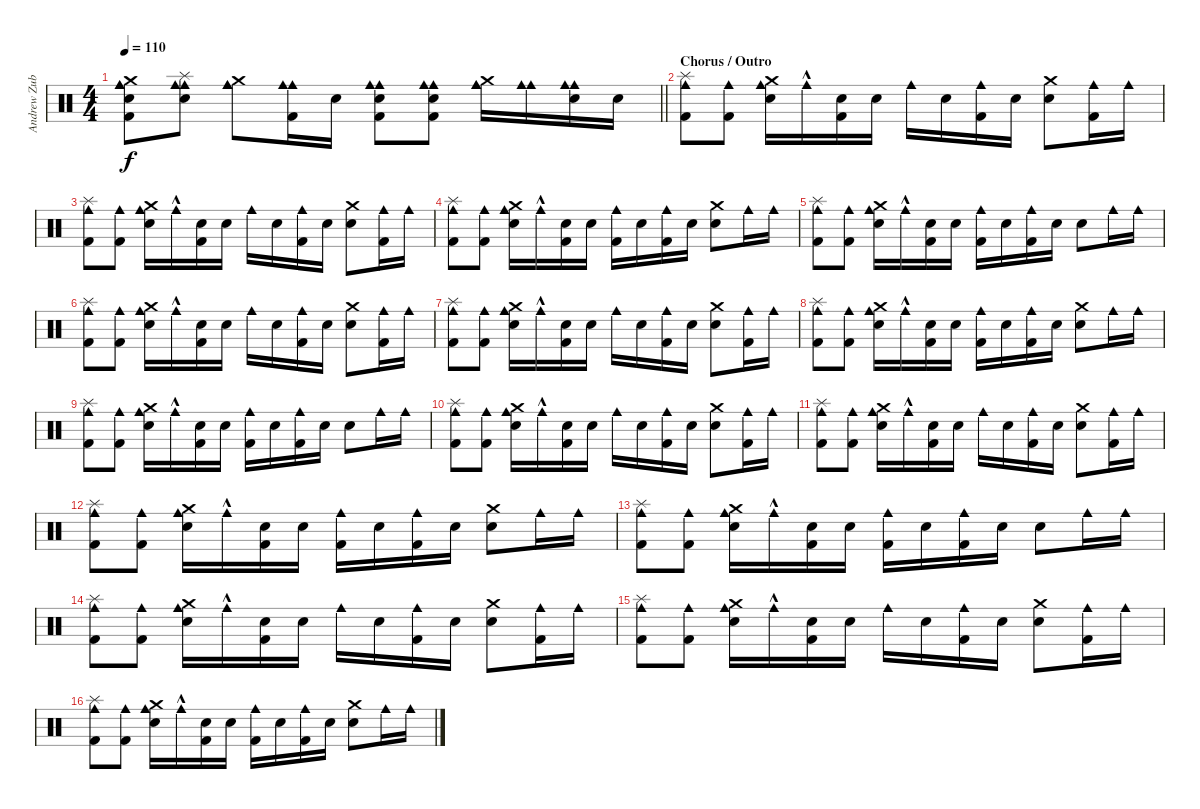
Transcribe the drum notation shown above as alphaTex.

\track ("Andrew Zubiszewski" "Andrew Zub") {instrument percussion}
\staff {score}
\articulation defaults
\ts (4 4)
\tempo 110
\clef neutral
\barLineRight lightlight
\ks c
("Cowbell medium (hit)" "Kick (hit) 2" "Electric Snare (hit)" "Cowbell medium (hit)" "Crash medium (hit)").8{dy f} ("Cowbell medium (hit)" "Electric Snare (hit)" "Cowbell medium (hit)" "Splash (hit)").8 ("Cowbell medium (hit)" "Cowbell medium (hit)" "Crash medium (hit)").8 ("Cowbell medium (hit)" "Kick (hit) 2" "Cowbell medium (hit)").16 "Electric Snare (hit)".16 ("Cowbell medium (hit)" "Kick (hit) 2" "Electric Snare (hit)" "Cowbell medium (hit)").8 ("Cowbell medium (hit)" "Kick (hit) 2" "Electric Snare (hit)" "Cowbell medium (hit)").8 ("Cowbell medium (hit)" "Cowbell medium (hit)" "Crash medium (hit)").16 ("Cowbell medium (hit)" "Cowbell medium (hit)").16 ("Cowbell medium (hit)" "Electric Snare (hit)" "Cowbell medium (hit)").16 "Electric Snare (hit)".16 |
\section ("" "Chorus / Outro")
("Kick (hit) 2" "Splash (hit)" "Cowbell medium (hit)").8 ("Kick (hit) 2" "Cowbell medium (hit)").8 ("Electric Snare (hit)" "Cowbell medium (hit)" "Crash medium (hit)").16 "Cowbell medium (hit)"{hac}.16 ("Kick (hit) 2" "Electric Snare (hit)").16 "Electric Snare (hit)".16 "Cowbell medium (hit)".16 "Electric Snare (hit)".16 ("Kick (hit) 2" "Cowbell medium (hit)").16 "Electric Snare (hit)".16 ("Electric Snare (hit)" "Crash medium (hit)").8 ("Kick (hit) 2" "Cowbell medium (hit)").16 "Cowbell medium (hit)".16 |
("Kick (hit) 2" "Splash (hit)" "Cowbell medium (hit)").8 ("Kick (hit) 2" "Cowbell medium (hit)").8 ("Electric Snare (hit)" "Cowbell medium (hit)" "Crash medium (hit)").16 "Cowbell medium (hit)"{hac}.16 ("Kick (hit) 2" "Electric Snare (hit)").16 "Electric Snare (hit)".16 "Cowbell medium (hit)".16 "Electric Snare (hit)".16 ("Kick (hit) 2" "Cowbell medium (hit)").16 "Electric Snare (hit)".16 ("Electric Snare (hit)" "Crash medium (hit)").8 ("Cowbell medium (hit)" "Kick (hit) 2").16 "Cowbell medium (hit)".16 |
("Kick (hit) 2" "Splash (hit)" "Cowbell medium (hit)").8 ("Kick (hit) 2" "Cowbell medium (hit)").8 ("Electric Snare (hit)" "Cowbell medium (hit)" "Crash medium (hit)").16 "Cowbell medium (hit)"{hac}.16 ("Kick (hit) 2" "Electric Snare (hit)").16 "Electric Snare (hit)".16 ("Kick (hit) 2" "Cowbell medium (hit)").16 "Electric Snare (hit)".16 ("Kick (hit) 2" "Cowbell medium (hit)").16 "Electric Snare (hit)".16 ("Electric Snare (hit)" "Crash medium (hit)").8 "Cowbell medium (hit)".16 "Cowbell medium (hit)".16 |
("Kick (hit) 2" "Splash (hit)" "Cowbell medium (hit)").8 ("Kick (hit) 2" "Cowbell medium (hit)").8 ("Electric Snare (hit)" "Cowbell medium (hit)" "Crash medium (hit)").16 "Cowbell medium (hit)"{hac}.16 ("Kick (hit) 2" "Electric Snare (hit)").16 "Electric Snare (hit)".16 ("Kick (hit) 2" "Cowbell medium (hit)").16 "Electric Snare (hit)".16 ("Kick (hit) 2" "Cowbell medium (hit)").16 "Electric Snare (hit)".16 "Electric Snare (hit)".8 "Cowbell medium (hit)".16 "Cowbell medium (hit)".16 |
("Kick (hit) 2" "Splash (hit)" "Cowbell medium (hit)").8 ("Kick (hit) 2" "Cowbell medium (hit)").8 ("Electric Snare (hit)" "Cowbell medium (hit)" "Crash medium (hit)").16 "Cowbell medium (hit)"{hac}.16 ("Kick (hit) 2" "Electric Snare (hit)").16 "Electric Snare (hit)".16 "Cowbell medium (hit)".16 "Electric Snare (hit)".16 ("Kick (hit) 2" "Cowbell medium (hit)").16 "Electric Snare (hit)".16 ("Electric Snare (hit)" "Crash medium (hit)").8 ("Cowbell medium (hit)" "Kick (hit) 2").16 "Cowbell medium (hit)".16 |
("Kick (hit) 2" "Splash (hit)" "Cowbell medium (hit)").8 ("Kick (hit) 2" "Cowbell medium (hit)").8 ("Electric Snare (hit)" "Cowbell medium (hit)" "Crash medium (hit)").16 "Cowbell medium (hit)"{hac}.16 ("Kick (hit) 2" "Electric Snare (hit)").16 "Electric Snare (hit)".16 "Cowbell medium (hit)".16 "Electric Snare (hit)".16 ("Kick (hit) 2" "Cowbell medium (hit)").16 "Electric Snare (hit)".16 ("Electric Snare (hit)" "Crash medium (hit)").8 ("Cowbell medium (hit)" "Kick (hit) 2").16 "Cowbell medium (hit)".16 |
("Kick (hit) 2" "Splash (hit)" "Cowbell medium (hit)").8 ("Kick (hit) 2" "Cowbell medium (hit)").8 ("Electric Snare (hit)" "Cowbell medium (hit)" "Crash medium (hit)").16 "Cowbell medium (hit)"{hac}.16 ("Kick (hit) 2" "Electric Snare (hit)").16 "Electric Snare (hit)".16 ("Kick (hit) 2" "Cowbell medium (hit)").16 "Electric Snare (hit)".16 ("Kick (hit) 2" "Cowbell medium (hit)").16 "Electric Snare (hit)".16 ("Electric Snare (hit)" "Crash medium (hit)").8 "Cowbell medium (hit)".16 "Cowbell medium (hit)".16 |
("Kick (hit) 2" "Splash (hit)" "Cowbell medium (hit)").8 ("Kick (hit) 2" "Cowbell medium (hit)").8 ("Electric Snare (hit)" "Cowbell medium (hit)" "Crash medium (hit)").16 "Cowbell medium (hit)"{hac}.16 ("Kick (hit) 2" "Electric Snare (hit)").16 "Electric Snare (hit)".16 ("Kick (hit) 2" "Cowbell medium (hit)").16 "Electric Snare (hit)".16 ("Kick (hit) 2" "Cowbell medium (hit)").16 "Electric Snare (hit)".16 "Electric Snare (hit)".8 "Cowbell medium (hit)".16 "Cowbell medium (hit)".16 |
("Kick (hit) 2" "Splash (hit)" "Cowbell medium (hit)").8 ("Kick (hit) 2" "Cowbell medium (hit)").8 ("Electric Snare (hit)" "Cowbell medium (hit)" "Crash medium (hit)").16 "Cowbell medium (hit)"{hac}.16 ("Kick (hit) 2" "Electric Snare (hit)").16 "Electric Snare (hit)".16 "Cowbell medium (hit)".16 "Electric Snare (hit)".16 ("Kick (hit) 2" "Cowbell medium (hit)").16 "Electric Snare (hit)".16 ("Electric Snare (hit)" "Crash medium (hit)").8 ("Cowbell medium (hit)" "Kick (hit) 2").16 "Cowbell medium (hit)".16 |
("Kick (hit) 2" "Splash (hit)" "Cowbell medium (hit)").8 ("Kick (hit) 2" "Cowbell medium (hit)").8 ("Electric Snare (hit)" "Cowbell medium (hit)" "Crash medium (hit)").16 "Cowbell medium (hit)"{hac}.16 ("Kick (hit) 2" "Electric Snare (hit)").16 "Electric Snare (hit)".16 "Cowbell medium (hit)".16 "Electric Snare (hit)".16 ("Kick (hit) 2" "Cowbell medium (hit)").16 "Electric Snare (hit)".16 ("Electric Snare (hit)" "Crash medium (hit)").8 ("Cowbell medium (hit)" "Kick (hit) 2").16 "Cowbell medium (hit)".16 |
("Kick (hit) 2" "Splash (hit)" "Cowbell medium (hit)").8 ("Kick (hit) 2" "Cowbell medium (hit)").8 ("Electric Snare (hit)" "Cowbell medium (hit)" "Crash medium (hit)").16 "Cowbell medium (hit)"{hac}.16 ("Kick (hit) 2" "Electric Snare (hit)").16 "Electric Snare (hit)".16 ("Kick (hit) 2" "Cowbell medium (hit)").16 "Electric Snare (hit)".16 ("Kick (hit) 2" "Cowbell medium (hit)").16 "Electric Snare (hit)".16 ("Electric Snare (hit)" "Crash medium (hit)").8 "Cowbell medium (hit)".16 "Cowbell medium (hit)".16 |
("Kick (hit) 2" "Splash (hit)" "Cowbell medium (hit)").8 ("Kick (hit) 2" "Cowbell medium (hit)").8 ("Electric Snare (hit)" "Cowbell medium (hit)" "Crash medium (hit)").16 "Cowbell medium (hit)"{hac}.16 ("Kick (hit) 2" "Electric Snare (hit)").16 "Electric Snare (hit)".16 ("Kick (hit) 2" "Cowbell medium (hit)").16 "Electric Snare (hit)".16 ("Kick (hit) 2" "Cowbell medium (hit)").16 "Electric Snare (hit)".16 "Electric Snare (hit)".8 "Cowbell medium (hit)".16 "Cowbell medium (hit)".16 |
("Kick (hit) 2" "Splash (hit)" "Cowbell medium (hit)").8 ("Kick (hit) 2" "Cowbell medium (hit)").8 ("Electric Snare (hit)" "Cowbell medium (hit)" "Crash medium (hit)").16 "Cowbell medium (hit)"{hac}.16 ("Kick (hit) 2" "Electric Snare (hit)").16 "Electric Snare (hit)".16 "Cowbell medium (hit)".16 "Electric Snare (hit)".16 ("Kick (hit) 2" "Cowbell medium (hit)").16 "Electric Snare (hit)".16 ("Electric Snare (hit)" "Crash medium (hit)").8 ("Cowbell medium (hit)" "Kick (hit) 2").16 "Cowbell medium (hit)".16 |
("Kick (hit) 2" "Splash (hit)" "Cowbell medium (hit)").8 ("Kick (hit) 2" "Cowbell medium (hit)").8 ("Electric Snare (hit)" "Cowbell medium (hit)" "Crash medium (hit)").16 "Cowbell medium (hit)"{hac}.16 ("Kick (hit) 2" "Electric Snare (hit)").16 "Electric Snare (hit)".16 "Cowbell medium (hit)".16 "Electric Snare (hit)".16 ("Kick (hit) 2" "Cowbell medium (hit)").16 "Electric Snare (hit)".16 ("Electric Snare (hit)" "Crash medium (hit)").8 ("Cowbell medium (hit)" "Kick (hit) 2").16 "Cowbell medium (hit)".16 |
("Kick (hit) 2" "Splash (hit)" "Cowbell medium (hit)").8 ("Kick (hit) 2" "Cowbell medium (hit)").8 ("Electric Snare (hit)" "Cowbell medium (hit)" "Crash medium (hit)").16 "Cowbell medium (hit)"{hac}.16 ("Kick (hit) 2" "Electric Snare (hit)").16 "Electric Snare (hit)".16 ("Kick (hit) 2" "Cowbell medium (hit)").16 "Electric Snare (hit)".16 ("Kick (hit) 2" "Cowbell medium (hit)").16 "Electric Snare (hit)".16 ("Electric Snare (hit)" "Crash medium (hit)").8 "Cowbell medium (hit)".16 "Cowbell medium (hit)".16
